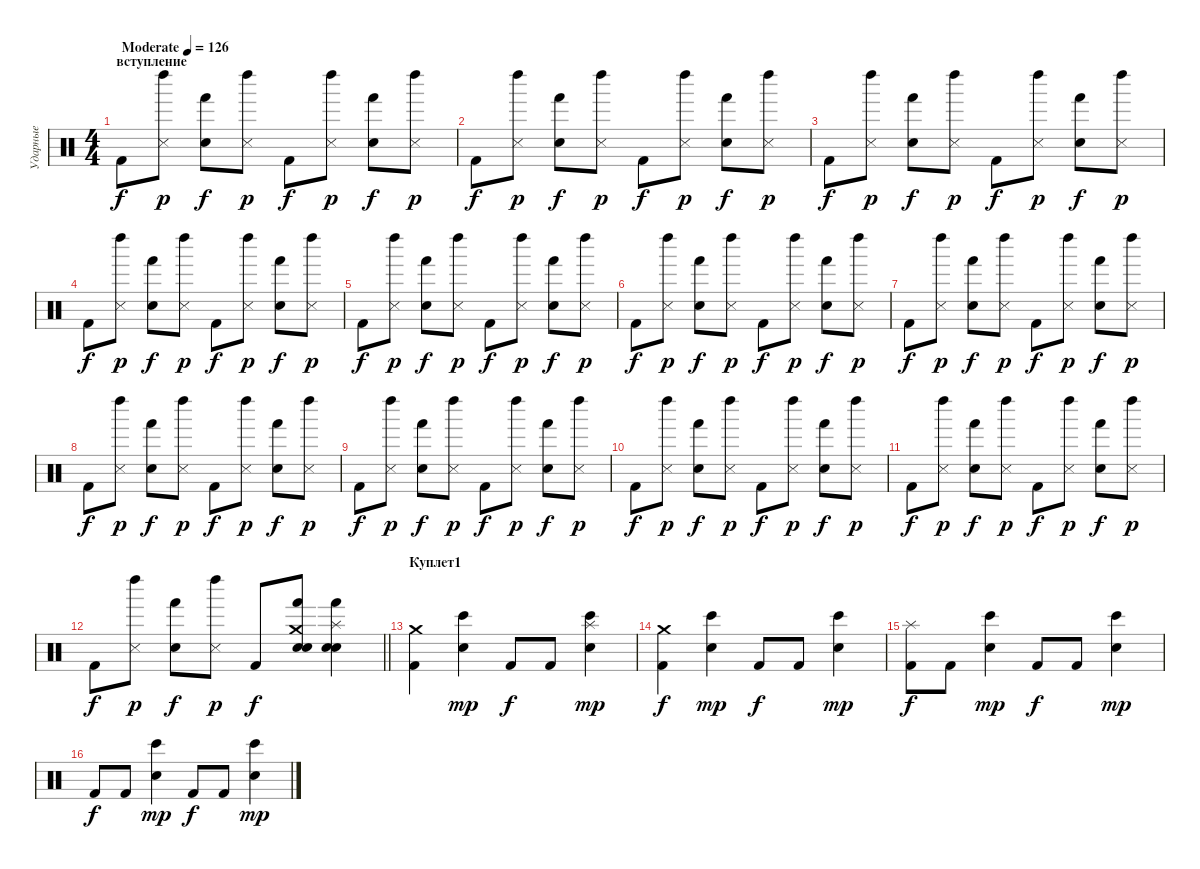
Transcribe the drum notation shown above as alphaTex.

\track ("Ударные" "Ударные") {instrument percussion}
\staff {score}
\articulation defaults
\ts (4 4)
\section ("" "вступление")
\tempo (126 "Moderate")
\clef neutral
\ks c "Kick (hit) 2".8{dy f}
("Left Maraca (hit)" "Metronome (hit)").8{dy p} ("Electric Snare (hit)" "Hand (hit)").8{dy f} ("Left Maraca (hit)" "Metronome (hit)").8{dy p} "Kick (hit) 2".8{dy f} ("Left Maraca (hit)" "Metronome (hit)").8{dy p} ("Electric Snare (hit)" "Hand (hit)").8{dy f} ("Left Maraca (hit)" "Metronome (hit)").8{dy p} |
"Kick (hit) 2".8{dy f} ("Left Maraca (hit)" "Metronome (hit)").8{dy p} ("Electric Snare (hit)" "Hand (hit)").8{dy f} ("Left Maraca (hit)" "Metronome (hit)").8{dy p} "Kick (hit) 2".8{dy f} ("Left Maraca (hit)" "Metronome (hit)").8{dy p} ("Electric Snare (hit)" "Hand (hit)").8{dy f} ("Left Maraca (hit)" "Metronome (hit)").8{dy p} |
"Kick (hit) 2".8{dy f} ("Left Maraca (hit)" "Metronome (hit)").8{dy p} ("Electric Snare (hit)" "Hand (hit)").8{dy f} ("Left Maraca (hit)" "Metronome (hit)").8{dy p} "Kick (hit) 2".8{dy f} ("Left Maraca (hit)" "Metronome (hit)").8{dy p} ("Electric Snare (hit)" "Hand (hit)").8{dy f} ("Left Maraca (hit)" "Metronome (hit)").8{dy p} |
"Kick (hit) 2".8{dy f} ("Left Maraca (hit)" "Metronome (hit)").8{dy p} ("Electric Snare (hit)" "Hand (hit)").8{dy f} ("Left Maraca (hit)" "Metronome (hit)").8{dy p} "Kick (hit) 2".8{dy f} ("Left Maraca (hit)" "Metronome (hit)").8{dy p} ("Electric Snare (hit)" "Hand (hit)").8{dy f} ("Left Maraca (hit)" "Metronome (hit)").8{dy p} |
"Kick (hit) 2".8{dy f} ("Left Maraca (hit)" "Metronome (hit)").8{dy p} ("Electric Snare (hit)" "Hand (hit)").8{dy f} ("Left Maraca (hit)" "Metronome (hit)").8{dy p} "Kick (hit) 2".8{dy f} ("Left Maraca (hit)" "Metronome (hit)").8{dy p} ("Electric Snare (hit)" "Hand (hit)").8{dy f} ("Left Maraca (hit)" "Metronome (hit)").8{dy p} |
"Kick (hit) 2".8{dy f} ("Left Maraca (hit)" "Metronome (hit)").8{dy p} ("Electric Snare (hit)" "Hand (hit)").8{dy f} ("Left Maraca (hit)" "Metronome (hit)").8{dy p} "Kick (hit) 2".8{dy f} ("Left Maraca (hit)" "Metronome (hit)").8{dy p} ("Electric Snare (hit)" "Hand (hit)").8{dy f} ("Left Maraca (hit)" "Metronome (hit)").8{dy p} |
"Kick (hit) 2".8{dy f} ("Left Maraca (hit)" "Metronome (hit)").8{dy p} ("Electric Snare (hit)" "Hand (hit)").8{dy f} ("Left Maraca (hit)" "Metronome (hit)").8{dy p} "Kick (hit) 2".8{dy f} ("Left Maraca (hit)" "Metronome (hit)").8{dy p} ("Electric Snare (hit)" "Hand (hit)").8{dy f} ("Left Maraca (hit)" "Metronome (hit)").8{dy p} |
"Kick (hit) 2".8{dy f} ("Left Maraca (hit)" "Metronome (hit)").8{dy p} ("Electric Snare (hit)" "Hand (hit)").8{dy f} ("Left Maraca (hit)" "Metronome (hit)").8{dy p} "Kick (hit) 2".8{dy f} ("Left Maraca (hit)" "Metronome (hit)").8{dy p} ("Electric Snare (hit)" "Hand (hit)").8{dy f} ("Left Maraca (hit)" "Metronome (hit)").8{dy p} |
"Kick (hit) 2".8{dy f} ("Left Maraca (hit)" "Metronome (hit)").8{dy p} ("Electric Snare (hit)" "Hand (hit)").8{dy f} ("Left Maraca (hit)" "Metronome (hit)").8{dy p} "Kick (hit) 2".8{dy f} ("Left Maraca (hit)" "Metronome (hit)").8{dy p} ("Electric Snare (hit)" "Hand (hit)").8{dy f} ("Left Maraca (hit)" "Metronome (hit)").8{dy p} |
"Kick (hit) 2".8{dy f} ("Left Maraca (hit)" "Metronome (hit)").8{dy p} ("Electric Snare (hit)" "Hand (hit)").8{dy f} ("Left Maraca (hit)" "Metronome (hit)").8{dy p} "Kick (hit) 2".8{dy f} ("Left Maraca (hit)" "Metronome (hit)").8{dy p} ("Electric Snare (hit)" "Hand (hit)").8{dy f} ("Left Maraca (hit)" "Metronome (hit)").8{dy p} |
"Kick (hit) 2".8{dy f} ("Left Maraca (hit)" "Metronome (hit)").8{dy p} ("Electric Snare (hit)" "Hand (hit)").8{dy f} ("Left Maraca (hit)" "Metronome (hit)").8{dy p} "Kick (hit) 2".8{dy f} ("Left Maraca (hit)" "Metronome (hit)").8{dy p} ("Electric Snare (hit)" "Hand (hit)").8{dy f} ("Left Maraca (hit)" "Metronome (hit)").8{dy p} |
\barLineRight lightlight "Kick (hit) 2".8{dy f}
("Left Maraca (hit)" "Metronome (hit)").8{dy p} ("Electric Snare (hit)" "Hand (hit)").8{dy f} ("Left Maraca (hit)" "Metronome (hit)").8{dy p} "Kick (hit) 2".8{dy f} ("Crash medium (hit)" "Electric Snare (hit)" "Hand (hit)" "Snare (hit) 2").8 ("Splash (hit)" "Electric Snare (hit)" "Hand (hit)" "Snare (hit) 2").4 |
\section ("" "Куплет1")
("Crash medium (hit)" "Kick (hit) 2").4 ("Electric Snare (hit)" "Bongo High (hit)").4{dy mp} "Kick (hit) 2".8{dy f} "Kick (hit) 2".8 ("Splash (hit)" "Electric Snare (hit)" "Bongo High (hit)").4{dy mp} |
("Crash medium (hit)" "Kick (hit) 2").4{dy f} ("Electric Snare (hit)" "Bongo High (hit)").4{dy mp} "Kick (hit) 2".8{dy f} "Kick (hit) 2".8 ("Electric Snare (hit)" "Bongo High (hit)").4{dy mp} |
("Splash (hit)" "Kick (hit) 2").8{dy f} "Kick (hit) 2".8 ("Electric Snare (hit)" "Bongo High (hit)").4{dy mp} "Kick (hit) 2".8{dy f} "Kick (hit) 2".8 ("Electric Snare (hit)" "Bongo High (hit)").4{dy mp} |
"Kick (hit) 2".8{dy f} "Kick (hit) 2".8 ("Electric Snare (hit)" "Bongo High (hit)").4{dy mp} "Kick (hit) 2".8{dy f} "Kick (hit) 2".8 ("Electric Snare (hit)" "Bongo High (hit)").4{dy mp}
